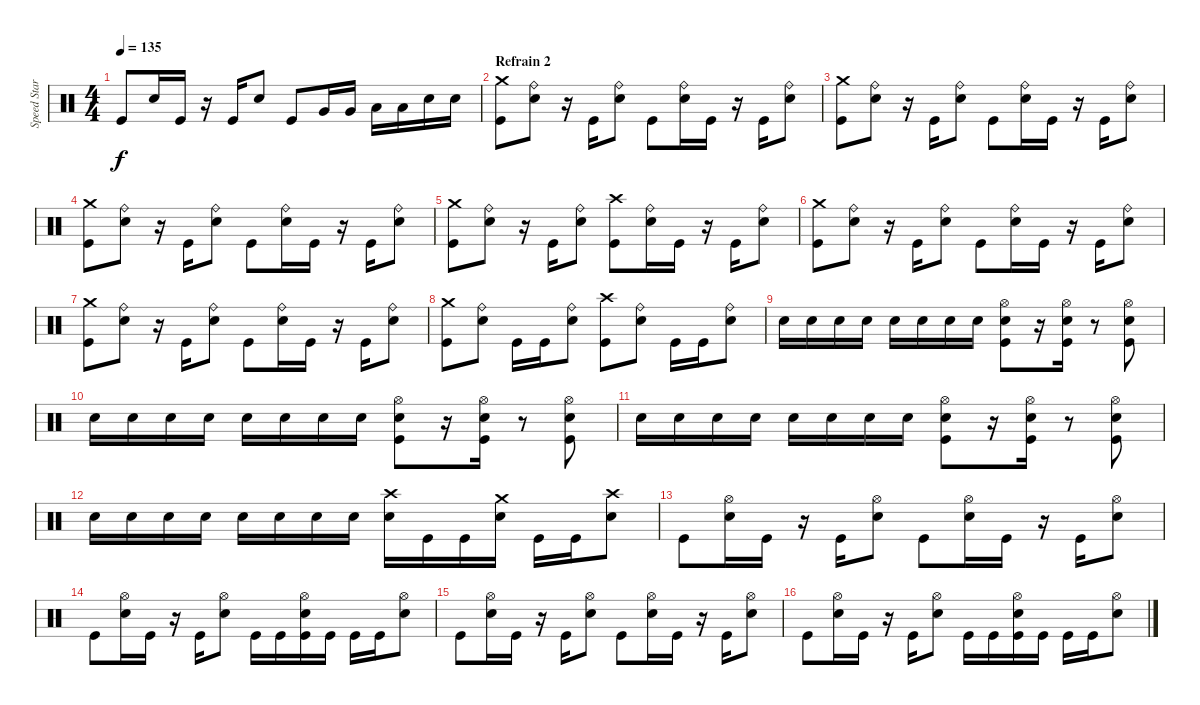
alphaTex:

\track ("Speed Star" "Speed Star") {instrument percussion}
\staff {score}
\articulation defaults
\ts (4 4)
\tempo 135
\clef neutral
\ks c "Kick (hit)".8{dy f} "Snare (hit) 2".16 "Kick (hit)".16
r.16 "Kick (hit)".16 "Snare (hit) 2".8 "Kick (hit)".8 "Very Low Tom (hit)".16 "Very Low Tom (hit)".16 "Low Floor Tom (hit)".16 "Low Floor Tom (hit)".16 "Snare (hit) 2".16 "Snare (hit) 2".16 |
\section ("" "Refrain 2")
("Kick (hit)" "Crash medium (hit)").8 ("Snare (hit) 2" "Ride (bell)").8 r.16 "Kick (hit)".16 ("Snare (hit) 2" "Ride (bell)").8 "Kick (hit)".8 ("Snare (hit) 2" "Ride (bell)").16 "Kick (hit)".16 r.16 "Kick (hit)".16 ("Snare (hit) 2" "Ride (bell)").8 |
("Kick (hit)" "Crash medium (hit)").8 ("Snare (hit) 2" "Ride (bell)").8 r.16 "Kick (hit)".16 ("Snare (hit) 2" "Ride (bell)").8 "Kick (hit)".8 ("Snare (hit) 2" "Ride (bell)").16 "Kick (hit)".16 r.16 "Kick (hit)".16 ("Snare (hit) 2" "Ride (bell)").8 |
("Kick (hit)" "Crash medium (hit)").8 ("Snare (hit) 2" "Ride (bell)").8 r.16 "Kick (hit)".16 ("Snare (hit) 2" "Ride (bell)").8 "Kick (hit)".8 ("Snare (hit) 2" "Ride (bell)").16 "Kick (hit)".16 r.16 "Kick (hit)".16 ("Snare (hit) 2" "Ride (bell)").8 |
("Kick (hit)" "Crash medium (hit)").8 ("Snare (hit) 2" "Ride (bell)").8 r.16 "Kick (hit)".16 ("Snare (hit) 2" "Ride (bell)").8 ("Kick (hit)" "Crash high (hit)").8 ("Snare (hit) 2" "Ride (bell)").16 "Kick (hit)".16 r.16 "Kick (hit)".16 ("Snare (hit) 2" "Ride (bell)").8 |
("Kick (hit)" "Crash medium (hit)").8 ("Snare (hit) 2" "Ride (bell)").8 r.16 "Kick (hit)".16 ("Snare (hit) 2" "Ride (bell)").8 "Kick (hit)".8 ("Snare (hit) 2" "Ride (bell)").16 "Kick (hit)".16 r.16 "Kick (hit)".16 ("Snare (hit) 2" "Ride (bell)").8 |
("Kick (hit)" "Crash medium (hit)").8 ("Snare (hit) 2" "Ride (bell)").8 r.16 "Kick (hit)".16 ("Snare (hit) 2" "Ride (bell)").8 "Kick (hit)".8 ("Snare (hit) 2" "Ride (bell)").16 "Kick (hit)".16 r.16 "Kick (hit)".16 ("Snare (hit) 2" "Ride (bell)").8 |
("Kick (hit)" "Crash medium (hit)").8 ("Snare (hit) 2" "Ride (bell)").8 "Kick (hit)".16 "Kick (hit)".16 ("Snare (hit) 2" "Ride (bell)").8 ("Kick (hit)" "Crash high (hit)").8 ("Snare (hit) 2" "Ride (bell)").8 "Kick (hit)".16 "Kick (hit)".16 ("Snare (hit) 2" "Ride (bell)").8 |
"Snare (hit) 2".16 "Snare (hit) 2".16 "Snare (hit) 2".16 "Snare (hit) 2".16 "Snare (hit) 2".16 "Snare (hit) 2".16 "Snare (hit) 2".16 "Snare (hit) 2".16 ("Kick (hit)" "Snare (hit) 2" "Hi-Hat (open)").8 r.16 ("Kick (hit)" "Snare (hit) 2" "Hi-Hat (open)").16 r.8 ("Kick (hit)" "Snare (hit) 2" "Hi-Hat (open)").8 |
"Snare (hit) 2".16 "Snare (hit) 2".16 "Snare (hit) 2".16 "Snare (hit) 2".16 "Snare (hit) 2".16 "Snare (hit) 2".16 "Snare (hit) 2".16 "Snare (hit) 2".16 ("Kick (hit)" "Snare (hit) 2" "Hi-Hat (open)").8 r.16 ("Kick (hit)" "Snare (hit) 2" "Hi-Hat (open)").16 r.8 ("Kick (hit)" "Snare (hit) 2" "Hi-Hat (open)").8 |
"Snare (hit) 2".16 "Snare (hit) 2".16 "Snare (hit) 2".16 "Snare (hit) 2".16 "Snare (hit) 2".16 "Snare (hit) 2".16 "Snare (hit) 2".16 "Snare (hit) 2".16 ("Kick (hit)" "Snare (hit) 2" "Hi-Hat (open)").8 r.16 ("Kick (hit)" "Snare (hit) 2" "Hi-Hat (open)").16 r.8 ("Kick (hit)" "Snare (hit) 2" "Hi-Hat (open)").8 |
"Snare (hit) 2".16 "Snare (hit) 2".16 "Snare (hit) 2".16 "Snare (hit) 2".16 "Snare (hit) 2".16 "Snare (hit) 2".16 "Snare (hit) 2".16 "Snare (hit) 2".16 ("Snare (hit) 2" "Crash high (hit)").16 "Kick (hit)".16 "Kick (hit)".16 ("Snare (hit) 2" "Crash medium (hit)").16 "Kick (hit)".16 "Kick (hit)".16 ("Snare (hit) 2" "Crash high (hit)").8 |
"Kick (hit)".8 ("Snare (hit) 2" "Hi-Hat (open)").16 "Kick (hit)".16 r.16 "Kick (hit)".16 ("Snare (hit) 2" "Hi-Hat (open)").8 "Kick (hit)".8 ("Snare (hit) 2" "Hi-Hat (open)").16 "Kick (hit)".16 r.16 "Kick (hit)".16 ("Snare (hit) 2" "Hi-Hat (open)").8 |
"Kick (hit)".8 ("Snare (hit) 2" "Hi-Hat (open)").16 "Kick (hit)".16 r.16 "Kick (hit)".16 ("Snare (hit) 2" "Hi-Hat (open)").8 "Kick (hit)".16 "Kick (hit)".16 ("Kick (hit)" "Snare (hit) 2" "Hi-Hat (open)").16 "Kick (hit)".16 "Kick (hit)".16 "Kick (hit)".16 ("Snare (hit) 2" "Hi-Hat (open)").8 |
"Kick (hit)".8 ("Snare (hit) 2" "Hi-Hat (open)").16 "Kick (hit)".16 r.16 "Kick (hit)".16 ("Snare (hit) 2" "Hi-Hat (open)").8 "Kick (hit)".8 ("Snare (hit) 2" "Hi-Hat (open)").16 "Kick (hit)".16 r.16 "Kick (hit)".16 ("Snare (hit) 2" "Hi-Hat (open)").8 |
"Kick (hit)".8 ("Snare (hit) 2" "Hi-Hat (open)").16 "Kick (hit)".16 r.16 "Kick (hit)".16 ("Snare (hit) 2" "Hi-Hat (open)").8 "Kick (hit)".16 "Kick (hit)".16 ("Kick (hit)" "Snare (hit) 2" "Hi-Hat (open)").16 "Kick (hit)".16 "Kick (hit)".16 "Kick (hit)".16 ("Snare (hit) 2" "Hi-Hat (open)").8
